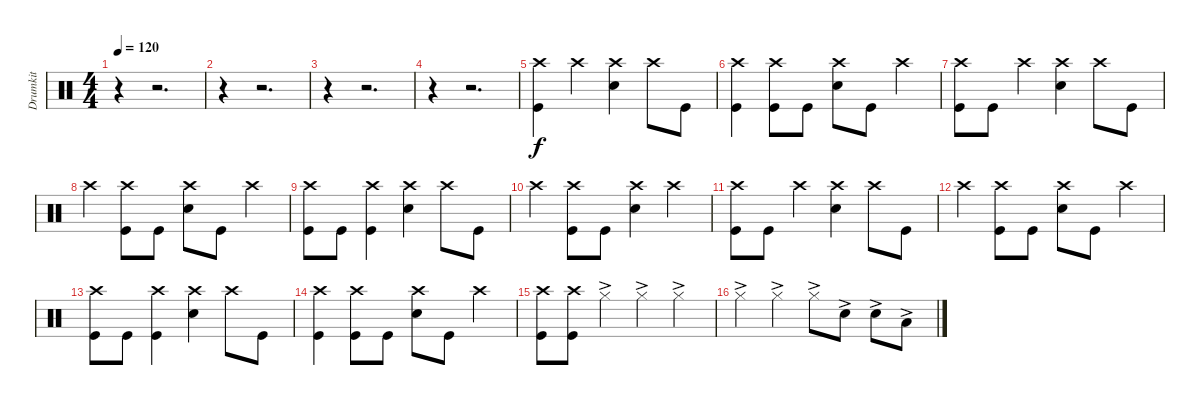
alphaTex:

\track ("Drumkit" "Drumkit") {instrument percussion}
\staff {score}
\articulation defaults
\ts (4 4)
\tempo 120
\clef neutral
\ks c
r.4{dy f} r.2{d} |
r.4 r.2{d} |
r.4 r.2{d} |
r.4 r.2{d} |
("Crash high (hit)" "Kick (hit)").4 "Crash high (hit)".4 ("Crash high (hit)" "Snare (hit) 2").4 "Crash high (hit)".8 "Kick (hit)".8 |
("Crash high (hit)" "Kick (hit)").4 ("Crash high (hit)" "Kick (hit)").8 "Kick (hit)".8 ("Crash high (hit)" "Snare (hit) 2").8 "Kick (hit)".8 "Crash high (hit)".4 |
("Crash high (hit)" "Kick (hit)").8 "Kick (hit)".8 "Crash high (hit)".4 ("Crash high (hit)" "Snare (hit) 2").4 "Crash high (hit)".8 "Kick (hit)".8 |
"Crash high (hit)".4 ("Crash high (hit)" "Kick (hit)").8 "Kick (hit)".8 ("Crash high (hit)" "Snare (hit) 2").8 "Kick (hit)".8 "Crash high (hit)".4 |
("Crash high (hit)" "Kick (hit)").8 "Kick (hit)".8 ("Crash high (hit)" "Kick (hit)").4 ("Crash high (hit)" "Snare (hit) 2").4 "Crash high (hit)".8 "Kick (hit)".8 |
"Crash high (hit)".4 ("Crash high (hit)" "Kick (hit)").8 "Kick (hit)".8 ("Crash high (hit)" "Snare (hit) 2").4 "Crash high (hit)".4 |
("Crash high (hit)" "Kick (hit)").8 "Kick (hit)".8 "Crash high (hit)".4 ("Crash high (hit)" "Snare (hit) 2").4 "Crash high (hit)".8 "Kick (hit)".8 |
"Crash high (hit)".4 ("Crash high (hit)" "Kick (hit)").8 "Kick (hit)".8 ("Crash high (hit)" "Snare (hit) 2").8 "Kick (hit)".8 "Crash high (hit)".4 |
("Crash high (hit)" "Kick (hit)").8 "Kick (hit)".8 ("Crash high (hit)" "Kick (hit)").4 ("Crash high (hit)" "Snare (hit) 2").4 "Crash high (hit)".8 "Kick (hit)".8 |
("Crash high (hit)" "Kick (hit)").4 ("Crash high (hit)" "Kick (hit)").8 "Kick (hit)".8 ("Crash high (hit)" "Snare (hit) 2").8 "Kick (hit)".8 "Crash high (hit)".4 |
("Crash high (hit)" "Kick (hit)").8 ("Crash high (hit)" "Kick (hit)").8 "Hi-Hat (closed)"{ac}.4 "Hi-Hat (closed)"{ac}.4 "Hi-Hat (closed)"{ac}.4 |
"Hi-Hat (closed)"{ac}.4 "Hi-Hat (closed)"{ac}.4 "Hi-Hat (closed)"{ac}.8 "Snare (hit) 2"{ac}.8 "Snare (hit) 2"{ac}.8 "Low Tom (hit)"{ac}.8
